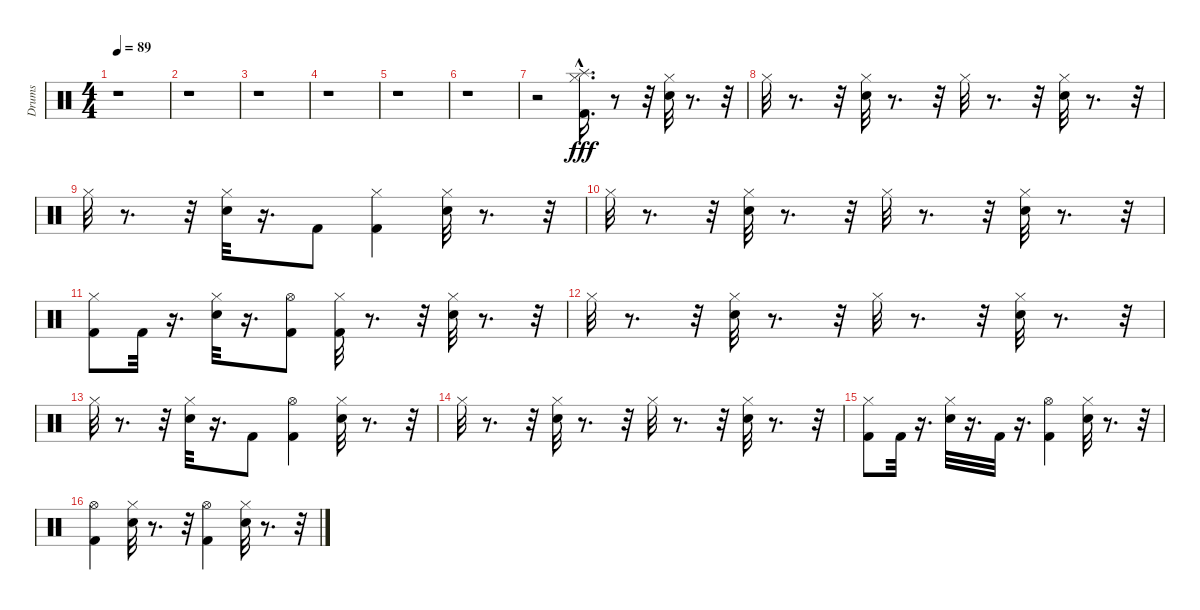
\track ("Drums" "Drums") {instrument percussion}
\staff {score}
\articulation defaults
\ts (4 4)
\tempo 89
\clef neutral
\ks c
r.1{dy f} |
r.1 |
r.1 |
r.1 |
r.1 |
r.1 |
r.2 ("Splash (hit)"{hac} "Kick (hit) 2" "Hi-Hat (closed)").16{d dy fff} r.8 r.32 ("Snare (hit) 2" "Hi-Hat (closed)").32 r.8{d} r.32 |
"Hi-Hat (closed)".32 r.8{d} r.32 ("Snare (hit) 2" "Hi-Hat (closed)").32 r.8{d} r.32 "Hi-Hat (closed)".32 r.8{d} r.32 ("Snare (hit) 2" "Hi-Hat (closed)").32 r.8{d} r.32 |
"Hi-Hat (closed)".32 r.8{d} r.32 ("Hi-Hat (closed)" "Snare (hit) 2").32 r.16{d} "Kick (hit) 2".8 ("Hi-Hat (closed)" "Kick (hit) 2").4 ("Hi-Hat (closed)" "Snare (hit) 2").32 r.8{d} r.32 |
"Hi-Hat (closed)".32 r.8{d} r.32 ("Snare (hit) 2" "Hi-Hat (closed)").32 r.8{d} r.32 "Hi-Hat (closed)".32 r.8{d} r.32 ("Snare (hit) 2" "Hi-Hat (closed)").32 r.8{d} r.32 |
("Hi-Hat (closed)" "Kick (hit) 2").8 "Kick (hit) 2".32 r.16{d} ("Hi-Hat (closed)" "Snare (hit) 2").32 r.16{d} ("Hi-Hat (open)" "Kick (hit) 2").8 ("Kick (hit) 2" "Hi-Hat (closed)").32 r.8{d} r.32 ("Snare (hit) 2" "Hi-Hat (closed)").32 r.8{d} r.32 |
"Hi-Hat (closed)".32 r.8{d} r.32 ("Snare (hit) 2" "Hi-Hat (closed)").32 r.8{d} r.32 "Hi-Hat (closed)".32 r.8{d} r.32 ("Snare (hit) 2" "Hi-Hat (closed)").32 r.8{d} r.32 |
"Hi-Hat (closed)".32 r.8{d} r.32 ("Hi-Hat (closed)" "Snare (hit) 2").32 r.16{d} "Kick (hit) 2".8 ("Hi-Hat (open)" "Kick (hit) 2").4 ("Hi-Hat (closed)" "Snare (hit) 2").32 r.8{d} r.32 |
"Hi-Hat (closed)".32 r.8{d} r.32 ("Snare (hit) 2" "Hi-Hat (closed)").32 r.8{d} r.32 "Hi-Hat (closed)".32 r.8{d} r.32 ("Snare (hit) 2" "Hi-Hat (closed)").32 r.8{d} r.32 |
("Hi-Hat (closed)" "Kick (hit) 2").8 "Kick (hit) 2".32 r.16{d} ("Hi-Hat (closed)" "Snare (hit) 2").32 r.16{d} "Kick (hit) 2".32 r.16{d} ("Hi-Hat (open)" "Kick (hit) 2").4 ("Snare (hit) 2" "Hi-Hat (closed)").32 r.8{d} r.32 |
("Kick (hit) 2" "Hi-Hat (open)").4 ("Snare (hit) 2" "Hi-Hat (closed)").32 r.8{d} r.32 ("Kick (hit) 2" "Hi-Hat (open)").4 ("Snare (hit) 2" "Hi-Hat (closed)").32 r.8{d} r.32
